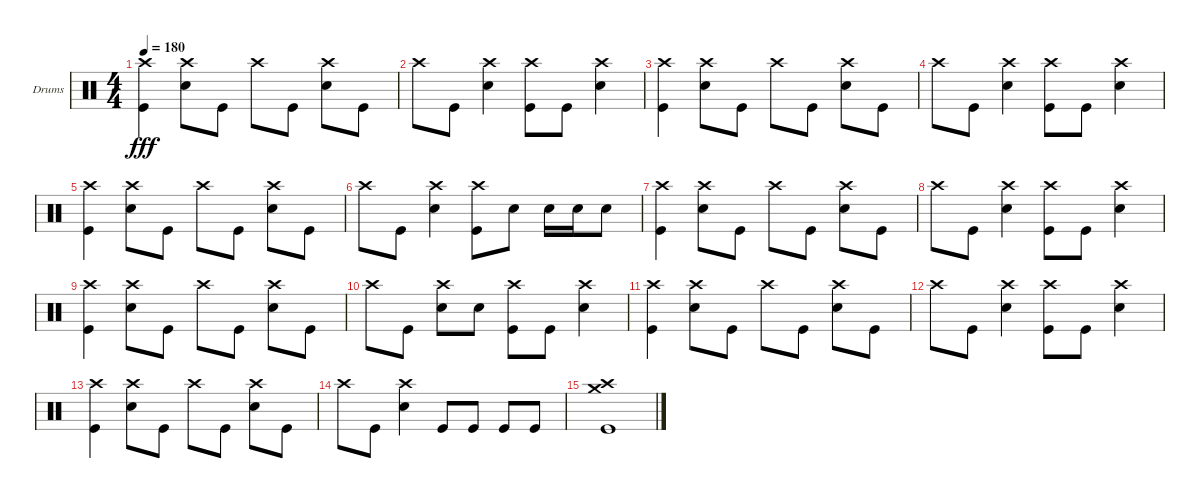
\defaultSystemsLayout 4
\bracketExtendMode groupsimilarinstruments
\firstSystemTrackNameOrientation horizontal
\otherSystemsTrackNameOrientation horizontal
\track ("Drumkit" "Drums") {instrument percussion}
\staff {score}
\articulation defaults
\ts (4 4)
\tempo 180
\clef neutral
\ks c
("Kick (hit)" "Crash high (hit)").4{dy fff} ("Snare (hit) 2" "Crash high (hit)").8 "Kick (hit)".8 "Crash high (hit)".8 "Kick (hit)".8 ("Snare (hit) 2" "Crash high (hit)").8 "Kick (hit)".8 |
"Crash high (hit)".8 "Kick (hit)".8 ("Snare (hit) 2" "Crash high (hit)").4 ("Kick (hit)" "Crash high (hit)").8 "Kick (hit)".8 ("Snare (hit) 2" "Crash high (hit)").4 |
("Kick (hit)" "Crash high (hit)").4 ("Snare (hit) 2" "Crash high (hit)").8 "Kick (hit)".8 "Crash high (hit)".8 "Kick (hit)".8 ("Snare (hit) 2" "Crash high (hit)").8 "Kick (hit)".8 |
"Crash high (hit)".8 "Kick (hit)".8 ("Snare (hit) 2" "Crash high (hit)").4 ("Kick (hit)" "Crash high (hit)").8 "Kick (hit)".8 ("Snare (hit) 2" "Crash high (hit)").4 |
("Kick (hit)" "Crash high (hit)").4 ("Snare (hit) 2" "Crash high (hit)").8 "Kick (hit)".8 "Crash high (hit)".8 "Kick (hit)".8 ("Snare (hit) 2" "Crash high (hit)").8 "Kick (hit)".8 |
"Crash high (hit)".8 "Kick (hit)".8 ("Snare (hit) 2" "Crash high (hit)").4 ("Crash high (hit)" "Kick (hit)").8 "Snare (hit) 2".8 "Snare (hit) 2".16 "Snare (hit) 2".16 "Snare (hit) 2".8 |
("Kick (hit)" "Crash high (hit)").4 ("Snare (hit) 2" "Crash high (hit)").8 "Kick (hit)".8 "Crash high (hit)".8 "Kick (hit)".8 ("Snare (hit) 2" "Crash high (hit)").8 "Kick (hit)".8 |
"Crash high (hit)".8 "Kick (hit)".8 ("Snare (hit) 2" "Crash high (hit)").4 ("Kick (hit)" "Crash high (hit)").8 "Kick (hit)".8 ("Snare (hit) 2" "Crash high (hit)").4 |
("Kick (hit)" "Crash high (hit)").4 ("Snare (hit) 2" "Crash high (hit)").8 "Kick (hit)".8 "Crash high (hit)".8 "Kick (hit)".8 ("Snare (hit) 2" "Crash high (hit)").8 "Kick (hit)".8 |
"Crash high (hit)".8 "Kick (hit)".8 ("Snare (hit) 2" "Crash high (hit)").8 "Snare (hit) 2".8 ("Kick (hit)" "Crash high (hit)").8 "Kick (hit)".8 ("Snare (hit) 2" "Crash high (hit)").4 |
("Kick (hit)" "Crash high (hit)").4 ("Snare (hit) 2" "Crash high (hit)").8 "Kick (hit)".8 "Crash high (hit)".8 "Kick (hit)".8 ("Snare (hit) 2" "Crash high (hit)").8 "Kick (hit)".8 |
"Crash high (hit)".8 "Kick (hit)".8 ("Snare (hit) 2" "Crash high (hit)").4 ("Kick (hit)" "Crash high (hit)").8 "Kick (hit)".8 ("Snare (hit) 2" "Crash high (hit)").4 |
("Kick (hit)" "Crash high (hit)").4 ("Snare (hit) 2" "Crash high (hit)").8 "Kick (hit)".8 "Crash high (hit)".8 "Kick (hit)".8 ("Snare (hit) 2" "Crash high (hit)").8 "Kick (hit)".8 |
"Crash high (hit)".8 "Kick (hit)".8 ("Snare (hit) 2" "Crash high (hit)").4 "Kick (hit)".8 "Kick (hit)".8 "Kick (hit)".8 "Kick (hit)".8 |
("Kick (hit)" "Crash high (hit)" "Crash medium (hit)").1
